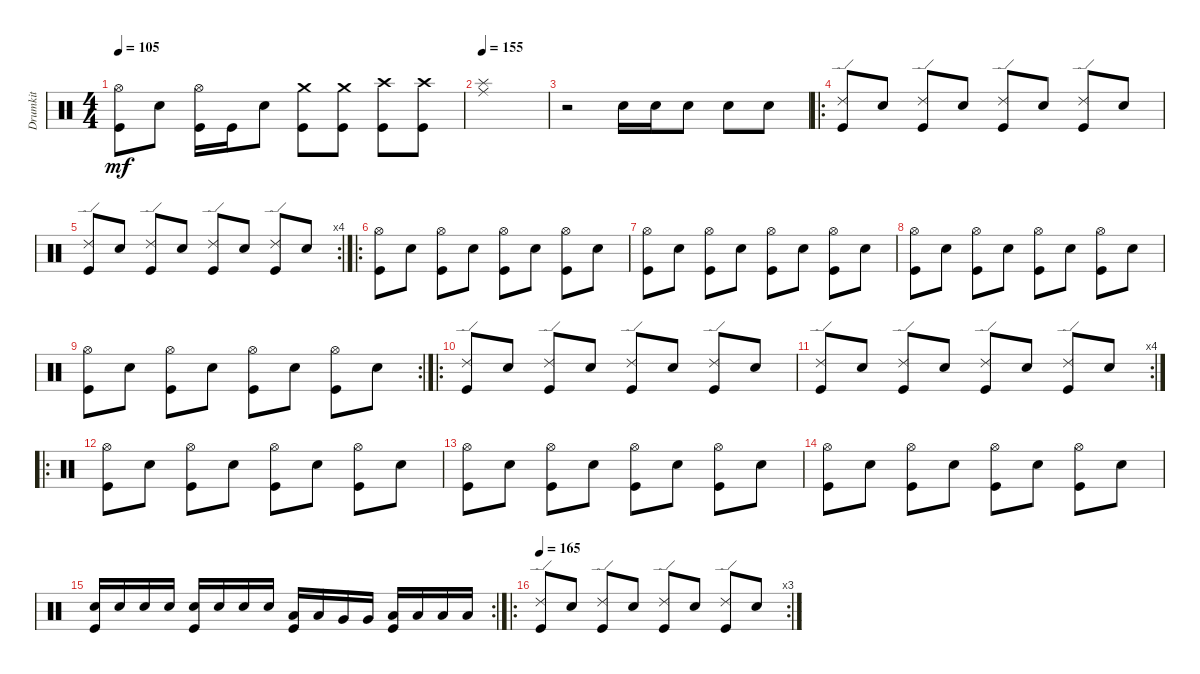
\track ("Drumkit" "Drumkit") {instrument percussion}
\staff {score}
\articulation defaults
\ts (4 4)
\tempo 105
\clef neutral
\ks c
("Hi-Hat (open)" "Kick (hit)").8{dy mf} "Snare (hit) 2".8 ("Kick (hit)" "Hi-Hat (open)").16 "Kick (hit)".16 "Snare (hit) 2".8 ("Kick (hit)" "Crash medium (hit)").8 ("Kick (hit)" "Crash medium (hit)").8 ("Kick (hit)" "Crash high (hit)").8 ("Kick (hit)" "Crash high (hit)").8 |
\tempo 155
("Splash (hit)" "Ride (middle)").1 |
r.2 "Snare (hit) 2".16 "Snare (hit) 2".16 "Snare (hit) 2".8 "Snare (hit) 2".8 "Snare (hit) 2".8 |
\ro
("Kick (hit)" "Ride (edge) 2").8 "Snare (hit) 2".8 ("Kick (hit)" "Ride (edge) 2").8 "Snare (hit) 2".8 ("Kick (hit)" "Ride (edge) 2").8 "Snare (hit) 2".8 ("Kick (hit)" "Ride (edge) 2").8 "Snare (hit) 2".8 |
\rc 4
("Kick (hit)" "Ride (edge) 2").8 "Snare (hit) 2".8 ("Kick (hit)" "Ride (edge) 2").8 "Snare (hit) 2".8 ("Kick (hit)" "Ride (edge) 2").8 "Snare (hit) 2".8 ("Kick (hit)" "Ride (edge) 2").8 "Snare (hit) 2".8 |
\ro
("Hi-Hat (open)" "Kick (hit)").8 "Snare (hit) 2".8 ("Hi-Hat (open)" "Kick (hit)").8 "Snare (hit) 2".8 ("Hi-Hat (open)" "Kick (hit)").8 "Snare (hit) 2".8 ("Hi-Hat (open)" "Kick (hit)").8 "Snare (hit) 2".8 |
("Hi-Hat (open)" "Kick (hit)").8 "Snare (hit) 2".8 ("Hi-Hat (open)" "Kick (hit)").8 "Snare (hit) 2".8 ("Hi-Hat (open)" "Kick (hit)").8 "Snare (hit) 2".8 ("Hi-Hat (open)" "Kick (hit)").8 "Snare (hit) 2".8 |
("Hi-Hat (open)" "Kick (hit)").8 "Snare (hit) 2".8 ("Hi-Hat (open)" "Kick (hit)").8 "Snare (hit) 2".8 ("Hi-Hat (open)" "Kick (hit)").8 "Snare (hit) 2".8 ("Hi-Hat (open)" "Kick (hit)").8 "Snare (hit) 2".8 |
\rc 2
("Hi-Hat (open)" "Kick (hit)").8 "Snare (hit) 2".8 ("Hi-Hat (open)" "Kick (hit)").8 "Snare (hit) 2".8 ("Hi-Hat (open)" "Kick (hit)").8 "Snare (hit) 2".8 ("Hi-Hat (open)" "Kick (hit)").8 "Snare (hit) 2".8 |
\ro
("Kick (hit)" "Ride (edge) 2").8 "Snare (hit) 2".8 ("Kick (hit)" "Ride (edge) 2").8 "Snare (hit) 2".8 ("Kick (hit)" "Ride (edge) 2").8 "Snare (hit) 2".8 ("Kick (hit)" "Ride (edge) 2").8 "Snare (hit) 2".8 |
\rc 4
("Kick (hit)" "Ride (edge) 2").8 "Snare (hit) 2".8 ("Kick (hit)" "Ride (edge) 2").8 "Snare (hit) 2".8 ("Kick (hit)" "Ride (edge) 2").8 "Snare (hit) 2".8 ("Kick (hit)" "Ride (edge) 2").8 "Snare (hit) 2".8 |
\ro
("Hi-Hat (open)" "Kick (hit)").8 "Snare (hit) 2".8 ("Hi-Hat (open)" "Kick (hit)").8 "Snare (hit) 2".8 ("Hi-Hat (open)" "Kick (hit)").8 "Snare (hit) 2".8 ("Hi-Hat (open)" "Kick (hit)").8 "Snare (hit) 2".8 |
("Hi-Hat (open)" "Kick (hit)").8 "Snare (hit) 2".8 ("Hi-Hat (open)" "Kick (hit)").8 "Snare (hit) 2".8 ("Hi-Hat (open)" "Kick (hit)").8 "Snare (hit) 2".8 ("Hi-Hat (open)" "Kick (hit)").8 "Snare (hit) 2".8 |
("Hi-Hat (open)" "Kick (hit)").8 "Snare (hit) 2".8 ("Hi-Hat (open)" "Kick (hit)").8 "Snare (hit) 2".8 ("Hi-Hat (open)" "Kick (hit)").8 "Snare (hit) 2".8 ("Hi-Hat (open)" "Kick (hit)").8 "Snare (hit) 2".8 |
\rc 2
("Snare (hit) 2" "Kick (hit)").16 "Snare (hit) 2".16 "Snare (hit) 2".16 "Snare (hit) 2".16 ("Snare (hit) 2" "Kick (hit)").16 "Snare (hit) 2".16 "Snare (hit) 2".16 "Snare (hit) 2".16 ("Low Tom (hit)" "Kick (hit)").16 "Low Tom (hit)".16 "Very Low Tom (hit)".16 "Very Low Tom (hit)".16 ("Low Floor Tom (hit)" "Kick (hit)").16 "Low Floor Tom (hit)".16 "Low Floor Tom (hit)".16 "Low Floor Tom (hit)".16 |
\ro
\rc 3
\tempo 165
("Kick (hit)" "Ride (edge) 2").8 "Snare (hit) 2".8 ("Kick (hit)" "Ride (edge) 2").8 "Snare (hit) 2".8 ("Kick (hit)" "Ride (edge) 2").8 "Snare (hit) 2".8 ("Kick (hit)" "Ride (edge) 2").8 "Snare (hit) 2".8
